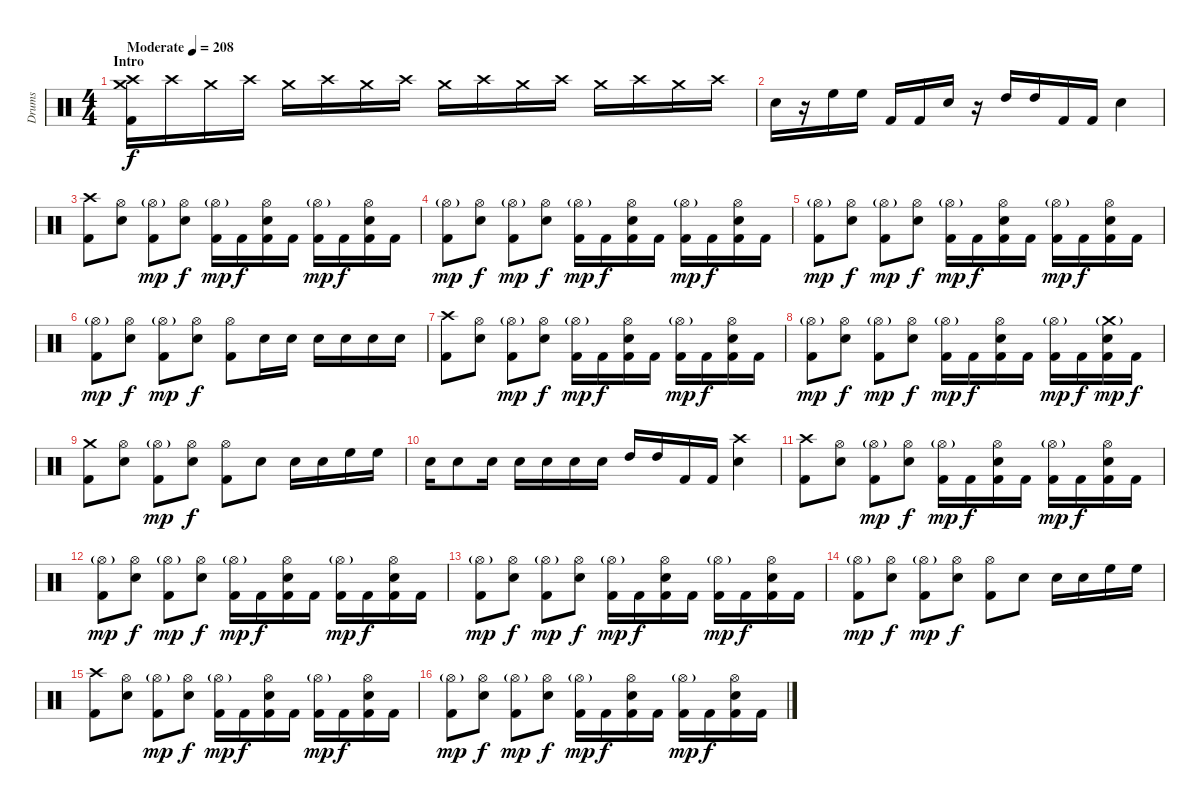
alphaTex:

\track ("Drums" "Drums") {instrument percussion}
\staff
\articulation defaults
\ts (4 4)
\section ("" "Intro")
\tempo (208 "Moderate")
\clef neutral
\ks c
("Crash medium (hit)" "Crash high (hit)" "Kick (hit) 2").16{dy f} "Crash high (hit)".16 "Crash medium (hit)".16 "Crash high (hit)".16 "Crash medium (hit)".16 "Crash high (hit)".16 "Crash medium (hit)".16 "Crash high (hit)".16 "Crash medium (hit)".16 "Crash high (hit)".16 "Crash medium (hit)".16 "Crash high (hit)".16 "Crash medium (hit)".16 "Crash high (hit)".16 "Crash medium (hit)".16 "Crash high (hit)".16 |
"Electric Snare (hit)".16 r.16 "High Floor Tom (hit)".16 "High Floor Tom (hit)".16 "Kick (hit) 2".16 "Kick (hit) 2".16 "Electric Snare (hit)".16 r.16 "High Tom (hit)".16 "High Tom (hit)".16 "Kick (hit) 2".16 "Kick (hit) 2".16 "Electric Snare (hit)".4 |
("Crash high (hit)" "Kick (hit) 2").8 ("Hi-Hat (open)" "Electric Snare (hit)").8 ("Hi-Hat (open)"{g} "Kick (hit) 2").8{dy mp} ("Hi-Hat (open)" "Electric Snare (hit)").8{dy f} ("Hi-Hat (open)"{g} "Kick (hit) 2").16{dy mp} "Kick (hit) 2".16{dy f} ("Hi-Hat (open)" "Electric Snare (hit)" "Kick (hit) 2").16 "Kick (hit) 2".16 ("Hi-Hat (open)"{g} "Kick (hit) 2").16{dy mp} "Kick (hit) 2".16{dy f} ("Hi-Hat (open)" "Electric Snare (hit)" "Kick (hit) 2").16 "Kick (hit) 2".16 |
("Hi-Hat (open)"{g} "Kick (hit) 2").8{dy mp} ("Hi-Hat (open)" "Electric Snare (hit)").8{dy f} ("Hi-Hat (open)"{g} "Kick (hit) 2").8{dy mp} ("Hi-Hat (open)" "Electric Snare (hit)").8{dy f} ("Hi-Hat (open)"{g} "Kick (hit) 2").16{dy mp} "Kick (hit) 2".16{dy f} ("Hi-Hat (open)" "Electric Snare (hit)" "Kick (hit) 2").16 "Kick (hit) 2".16 ("Hi-Hat (open)"{g} "Kick (hit) 2").16{dy mp} "Kick (hit) 2".16{dy f} ("Hi-Hat (open)" "Electric Snare (hit)" "Kick (hit) 2").16 "Kick (hit) 2".16 |
("Hi-Hat (open)"{g} "Kick (hit) 2").8{dy mp} ("Hi-Hat (open)" "Electric Snare (hit)").8{dy f} ("Hi-Hat (open)"{g} "Kick (hit) 2").8{dy mp} ("Hi-Hat (open)" "Electric Snare (hit)").8{dy f} ("Hi-Hat (open)"{g} "Kick (hit) 2").16{dy mp} "Kick (hit) 2".16{dy f} ("Hi-Hat (open)" "Electric Snare (hit)" "Kick (hit) 2").16 "Kick (hit) 2".16 ("Hi-Hat (open)"{g} "Kick (hit) 2").16{dy mp} "Kick (hit) 2".16{dy f} ("Hi-Hat (open)" "Electric Snare (hit)" "Kick (hit) 2").16 "Kick (hit) 2".16 |
("Hi-Hat (open)"{g} "Kick (hit) 2").8{dy mp} ("Hi-Hat (open)" "Electric Snare (hit)").8{dy f} ("Hi-Hat (open)"{g} "Kick (hit) 2").8{dy mp} ("Hi-Hat (open)" "Electric Snare (hit)").8{dy f} ("Hi-Hat (open)" "Kick (hit) 2").8 "Electric Snare (hit)".16 "Electric Snare (hit)".16 "Electric Snare (hit)".16 "Electric Snare (hit)".16 "Electric Snare (hit)".16 "Electric Snare (hit)".16 |
("Crash high (hit)" "Kick (hit) 2").8 ("Hi-Hat (open)" "Electric Snare (hit)").8 ("Hi-Hat (open)"{g} "Kick (hit) 2").8{dy mp} ("Hi-Hat (open)" "Electric Snare (hit)").8{dy f} ("Hi-Hat (open)"{g} "Kick (hit) 2").16{dy mp} "Kick (hit) 2".16{dy f} ("Hi-Hat (open)" "Electric Snare (hit)" "Kick (hit) 2").16 "Kick (hit) 2".16 ("Hi-Hat (open)"{g} "Kick (hit) 2").16{dy mp} "Kick (hit) 2".16{dy f} ("Hi-Hat (open)" "Electric Snare (hit)" "Kick (hit) 2").16 "Kick (hit) 2".16 |
("Hi-Hat (open)"{g} "Kick (hit) 2").8{dy mp} ("Hi-Hat (open)" "Electric Snare (hit)").8{dy f} ("Hi-Hat (open)"{g} "Kick (hit) 2").8{dy mp} ("Hi-Hat (open)" "Electric Snare (hit)").8{dy f} ("Hi-Hat (open)"{g} "Kick (hit) 2").16{dy mp} "Kick (hit) 2".16{dy f} ("Hi-Hat (open)" "Electric Snare (hit)" "Kick (hit) 2").16 "Kick (hit) 2".16 ("Hi-Hat (open)"{g} "Kick (hit) 2").16{dy mp} "Kick (hit) 2".16{dy f} ("Crash medium (hit)"{g} "Electric Snare (hit)" "Kick (hit) 2").16{dy mp} "Kick (hit) 2".16{dy f} |
("Crash medium (hit)" "Kick (hit) 2").8 ("Hi-Hat (open)" "Electric Snare (hit)").8 ("Hi-Hat (open)"{g} "Kick (hit) 2").8{dy mp} ("Hi-Hat (open)" "Electric Snare (hit)").8{dy f} ("Hi-Hat (open)" "Kick (hit) 2").8 "Electric Snare (hit)".8 "Electric Snare (hit)".16 "Electric Snare (hit)".16 "High Floor Tom (hit)".16 "High Floor Tom (hit)".16 |
"Electric Snare (hit)".16 "Electric Snare (hit)".8 "Electric Snare (hit)".16 "Electric Snare (hit)".16 "Electric Snare (hit)".16 "Electric Snare (hit)".16 "Electric Snare (hit)".16 "High Tom (hit)".16 "High Tom (hit)".16 "Kick (hit) 2".16 "Kick (hit) 2".16 ("Crash high (hit)" "Electric Snare (hit)").4 |
("Crash high (hit)" "Kick (hit) 2").8 ("Hi-Hat (open)" "Electric Snare (hit)").8 ("Hi-Hat (open)"{g} "Kick (hit) 2").8{dy mp} ("Hi-Hat (open)" "Electric Snare (hit)").8{dy f} ("Hi-Hat (open)"{g} "Kick (hit) 2").16{dy mp} "Kick (hit) 2".16{dy f} ("Hi-Hat (open)" "Electric Snare (hit)" "Kick (hit) 2").16 "Kick (hit) 2".16 ("Hi-Hat (open)"{g} "Kick (hit) 2").16{dy mp} "Kick (hit) 2".16{dy f} ("Hi-Hat (open)" "Electric Snare (hit)" "Kick (hit) 2").16 "Kick (hit) 2".16 |
("Hi-Hat (open)"{g} "Kick (hit) 2").8{dy mp} ("Hi-Hat (open)" "Electric Snare (hit)").8{dy f} ("Hi-Hat (open)"{g} "Kick (hit) 2").8{dy mp} ("Hi-Hat (open)" "Electric Snare (hit)").8{dy f} ("Hi-Hat (open)"{g} "Kick (hit) 2").16{dy mp} "Kick (hit) 2".16{dy f} ("Hi-Hat (open)" "Electric Snare (hit)" "Kick (hit) 2").16 "Kick (hit) 2".16 ("Hi-Hat (open)"{g} "Kick (hit) 2").16{dy mp} "Kick (hit) 2".16{dy f} ("Hi-Hat (open)" "Electric Snare (hit)" "Kick (hit) 2").16 "Kick (hit) 2".16 |
("Hi-Hat (open)"{g} "Kick (hit) 2").8{dy mp} ("Hi-Hat (open)" "Electric Snare (hit)").8{dy f} ("Hi-Hat (open)"{g} "Kick (hit) 2").8{dy mp} ("Hi-Hat (open)" "Electric Snare (hit)").8{dy f} ("Hi-Hat (open)"{g} "Kick (hit) 2").16{dy mp} "Kick (hit) 2".16{dy f} ("Hi-Hat (open)" "Electric Snare (hit)" "Kick (hit) 2").16 "Kick (hit) 2".16 ("Hi-Hat (open)"{g} "Kick (hit) 2").16{dy mp} "Kick (hit) 2".16{dy f} ("Hi-Hat (open)" "Electric Snare (hit)" "Kick (hit) 2").16 "Kick (hit) 2".16 |
("Hi-Hat (open)"{g} "Kick (hit) 2").8{dy mp} ("Hi-Hat (open)" "Electric Snare (hit)").8{dy f} ("Hi-Hat (open)"{g} "Kick (hit) 2").8{dy mp} ("Hi-Hat (open)" "Electric Snare (hit)").8{dy f} ("Hi-Hat (open)" "Kick (hit) 2").8 "Electric Snare (hit)".8 "Electric Snare (hit)".16 "Electric Snare (hit)".16 "High Floor Tom (hit)".16 "High Floor Tom (hit)".16 |
("Crash high (hit)" "Kick (hit) 2").8 ("Hi-Hat (open)" "Electric Snare (hit)").8 ("Hi-Hat (open)"{g} "Kick (hit) 2").8{dy mp} ("Hi-Hat (open)" "Electric Snare (hit)").8{dy f} ("Hi-Hat (open)"{g} "Kick (hit) 2").16{dy mp} "Kick (hit) 2".16{dy f} ("Hi-Hat (open)" "Electric Snare (hit)" "Kick (hit) 2").16 "Kick (hit) 2".16 ("Hi-Hat (open)"{g} "Kick (hit) 2").16{dy mp} "Kick (hit) 2".16{dy f} ("Hi-Hat (open)" "Electric Snare (hit)" "Kick (hit) 2").16 "Kick (hit) 2".16 |
("Hi-Hat (open)"{g} "Kick (hit) 2").8{dy mp} ("Hi-Hat (open)" "Electric Snare (hit)").8{dy f} ("Hi-Hat (open)"{g} "Kick (hit) 2").8{dy mp} ("Hi-Hat (open)" "Electric Snare (hit)").8{dy f} ("Hi-Hat (open)"{g} "Kick (hit) 2").16{dy mp} "Kick (hit) 2".16{dy f} ("Hi-Hat (open)" "Electric Snare (hit)" "Kick (hit) 2").16 "Kick (hit) 2".16 ("Hi-Hat (open)"{g} "Kick (hit) 2").16{dy mp} "Kick (hit) 2".16{dy f} ("Hi-Hat (open)" "Electric Snare (hit)" "Kick (hit) 2").16 "Kick (hit) 2".16
